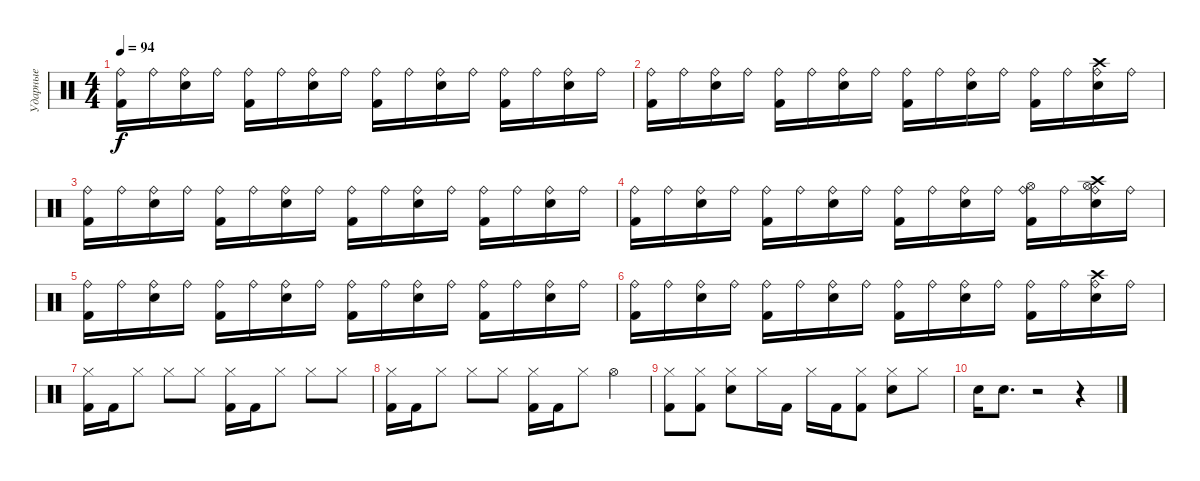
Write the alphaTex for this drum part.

\track ("Ударные" "Ударные") {instrument percussion}
\staff {score}
\articulation defaults
\ts (4 4)
\tempo 94
\clef neutral
\ks c
("Ride (bell)" "Kick (hit) 2").16{dy f} "Ride (bell)".16 ("Ride (bell)" "Electric Snare (hit)").16 "Ride (bell)".16 ("Ride (bell)" "Kick (hit) 2").16 "Ride (bell)".16 ("Ride (bell)" "Electric Snare (hit)").16 "Ride (bell)".16 ("Ride (bell)" "Kick (hit) 2").16 "Ride (bell)".16 ("Ride (bell)" "Electric Snare (hit)").16 "Ride (bell)".16 ("Ride (bell)" "Kick (hit) 2").16 "Ride (bell)".16 ("Ride (bell)" "Electric Snare (hit)").16 "Ride (bell)".16 |
("Ride (bell)" "Kick (hit) 2").16 "Ride (bell)".16 ("Ride (bell)" "Electric Snare (hit)").16 "Ride (bell)".16 ("Ride (bell)" "Kick (hit) 2").16 "Ride (bell)".16 ("Ride (bell)" "Electric Snare (hit)").16 "Ride (bell)".16 ("Ride (bell)" "Kick (hit) 2").16 "Ride (bell)".16 ("Ride (bell)" "Electric Snare (hit)").16 "Ride (bell)".16 ("Ride (bell)" "Kick (hit) 2").16 "Ride (bell)".16 ("Crash high (hit)" "Ride (bell)" "Electric Snare (hit)").16 "Ride (bell)".16 |
("Ride (bell)" "Kick (hit) 2").16 "Ride (bell)".16 ("Ride (bell)" "Electric Snare (hit)").16 "Ride (bell)".16 ("Ride (bell)" "Kick (hit) 2").16 "Ride (bell)".16 ("Ride (bell)" "Electric Snare (hit)").16 "Ride (bell)".16 ("Ride (bell)" "Kick (hit) 2").16 "Ride (bell)".16 ("Ride (bell)" "Electric Snare (hit)").16 "Ride (bell)".16 ("Ride (bell)" "Kick (hit) 2").16 "Ride (bell)".16 ("Ride (bell)" "Electric Snare (hit)").16 "Ride (bell)".16 |
("Ride (bell)" "Kick (hit) 2").16 "Ride (bell)".16 ("Ride (bell)" "Electric Snare (hit)").16 "Ride (bell)".16 ("Ride (bell)" "Kick (hit) 2").16 "Ride (bell)".16 ("Ride (bell)" "Electric Snare (hit)").16 "Ride (bell)".16 ("Ride (bell)" "Kick (hit) 2").16 "Ride (bell)".16 ("Ride (bell)" "Electric Snare (hit)").16 "Ride (bell)".16 ("Ride (bell)" "Hi-Hat (open)" "Kick (hit) 2").16 "Ride (bell)".16 ("Crash high (hit)" "Ride (bell)" "Hi-Hat (open)" "Electric Snare (hit)").16 "Ride (bell)".16 |
("Ride (bell)" "Kick (hit) 2").16 "Ride (bell)".16 ("Ride (bell)" "Electric Snare (hit)").16 "Ride (bell)".16 ("Ride (bell)" "Kick (hit) 2").16 "Ride (bell)".16 ("Ride (bell)" "Electric Snare (hit)").16 "Ride (bell)".16 ("Ride (bell)" "Kick (hit) 2").16 "Ride (bell)".16 ("Ride (bell)" "Electric Snare (hit)").16 "Ride (bell)".16 ("Ride (bell)" "Kick (hit) 2").16 "Ride (bell)".16 ("Ride (bell)" "Electric Snare (hit)").16 "Ride (bell)".16 |
("Ride (bell)" "Kick (hit) 2").16 "Ride (bell)".16 ("Ride (bell)" "Electric Snare (hit)").16 "Ride (bell)".16 ("Ride (bell)" "Kick (hit) 2").16 "Ride (bell)".16 ("Ride (bell)" "Electric Snare (hit)").16 "Ride (bell)".16 ("Ride (bell)" "Kick (hit) 2").16 "Ride (bell)".16 ("Ride (bell)" "Electric Snare (hit)").16 "Ride (bell)".16 ("Ride (bell)" "Kick (hit) 2").16 "Ride (bell)".16 ("Crash high (hit)" "Ride (bell)" "Electric Snare (hit)").16 "Ride (bell)".16 |
("Hi-Hat (closed)" "Kick (hit) 2").16 "Kick (hit) 2".16 "Hi-Hat (closed)".8 "Hi-Hat (closed)".8 "Hi-Hat (closed)".8 ("Hi-Hat (closed)" "Kick (hit) 2").16 "Kick (hit) 2".16 "Hi-Hat (closed)".8 "Hi-Hat (closed)".8 "Hi-Hat (closed)".8 |
("Hi-Hat (closed)" "Kick (hit) 2").16 "Kick (hit) 2".16 "Hi-Hat (closed)".8 "Hi-Hat (closed)".8 "Hi-Hat (closed)".8 ("Hi-Hat (closed)" "Kick (hit) 2").16 "Kick (hit) 2".16 "Hi-Hat (closed)".8 "Hi-Hat (open)".4 |
("Hi-Hat (closed)" "Kick (hit) 2").8 ("Hi-Hat (closed)" "Kick (hit) 2").8 ("Hi-Hat (closed)" "Electric Snare (hit)").8 "Hi-Hat (closed)".16 "Kick (hit) 2".16 "Hi-Hat (closed)".16 "Kick (hit) 2".16 ("Hi-Hat (closed)" "Kick (hit) 2").8 ("Hi-Hat (closed)" "Electric Snare (hit)").8 "Hi-Hat (closed)".8 |
"Electric Snare (hit)".16 "Electric Snare (hit)".8{d} r.2 r.4
